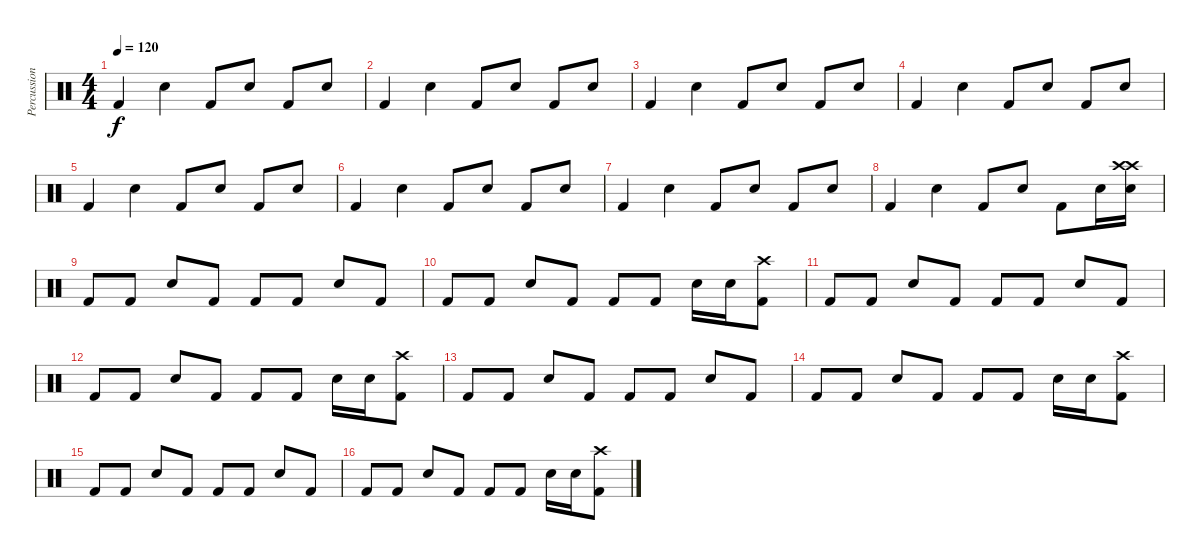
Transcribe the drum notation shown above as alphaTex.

\track ("Percussion" "Percussion") {instrument percussion}
\staff {score}
\articulation defaults
\ts (4 4)
\tempo 120
\clef neutral
\ks c "Kick (hit) 2".4{dy f} "Snare (hit) 2".4 "Kick (hit) 2".8 "Snare (hit) 2".8 "Kick (hit) 2".8 "Snare (hit) 2".8
|
"Kick (hit) 2".4 "Snare (hit) 2".4 "Kick (hit) 2".8 "Snare (hit) 2".8 "Kick (hit) 2".8 "Snare (hit) 2".8 |
"Kick (hit) 2".4 "Snare (hit) 2".4 "Kick (hit) 2".8 "Snare (hit) 2".8 "Kick (hit) 2".8 "Snare (hit) 2".8 |
"Kick (hit) 2".4 "Snare (hit) 2".4 "Kick (hit) 2".8 "Snare (hit) 2".8 "Kick (hit) 2".8 "Snare (hit) 2".8 |
"Kick (hit) 2".4 "Snare (hit) 2".4 "Kick (hit) 2".8 "Snare (hit) 2".8 "Kick (hit) 2".8 "Snare (hit) 2".8 |
"Kick (hit) 2".4 "Snare (hit) 2".4 "Kick (hit) 2".8 "Snare (hit) 2".8 "Kick (hit) 2".8 "Snare (hit) 2".8 |
"Kick (hit) 2".4 "Snare (hit) 2".4 "Kick (hit) 2".8 "Snare (hit) 2".8 "Kick (hit) 2".8 "Snare (hit) 2".8 |
"Kick (hit) 2".4 "Snare (hit) 2".4 "Kick (hit) 2".8 "Snare (hit) 2".8 "Kick (hit) 2".8 "Snare (hit) 2".16 ("Crash high (hit)" "Crash high (hit)" "Snare (hit) 2").16 |
"Kick (hit) 2".8 "Kick (hit) 2".8 "Snare (hit) 2".8 "Kick (hit) 2".8 "Kick (hit) 2".8 "Kick (hit) 2".8 "Snare (hit) 2".8 "Kick (hit) 2".8 |
"Kick (hit) 2".8 "Kick (hit) 2".8 "Snare (hit) 2".8 "Kick (hit) 2".8 "Kick (hit) 2".8 "Kick (hit) 2".8 "Snare (hit) 2".16 "Snare (hit) 2".16 ("Crash high (hit)" "Kick (hit) 2").8 |
"Kick (hit) 2".8 "Kick (hit) 2".8 "Snare (hit) 2".8 "Kick (hit) 2".8 "Kick (hit) 2".8 "Kick (hit) 2".8 "Snare (hit) 2".8 "Kick (hit) 2".8 |
"Kick (hit) 2".8 "Kick (hit) 2".8 "Snare (hit) 2".8 "Kick (hit) 2".8 "Kick (hit) 2".8 "Kick (hit) 2".8 "Snare (hit) 2".16 "Snare (hit) 2".16 ("Crash high (hit)" "Kick (hit) 2").8 |
"Kick (hit) 2".8 "Kick (hit) 2".8 "Snare (hit) 2".8 "Kick (hit) 2".8 "Kick (hit) 2".8 "Kick (hit) 2".8 "Snare (hit) 2".8 "Kick (hit) 2".8 |
"Kick (hit) 2".8 "Kick (hit) 2".8 "Snare (hit) 2".8 "Kick (hit) 2".8 "Kick (hit) 2".8 "Kick (hit) 2".8 "Snare (hit) 2".16 "Snare (hit) 2".16 ("Crash high (hit)" "Kick (hit) 2").8 |
"Kick (hit) 2".8 "Kick (hit) 2".8 "Snare (hit) 2".8 "Kick (hit) 2".8 "Kick (hit) 2".8 "Kick (hit) 2".8 "Snare (hit) 2".8 "Kick (hit) 2".8 |
"Kick (hit) 2".8 "Kick (hit) 2".8 "Snare (hit) 2".8 "Kick (hit) 2".8 "Kick (hit) 2".8 "Kick (hit) 2".8 "Snare (hit) 2".16 "Snare (hit) 2".16 ("Crash high (hit)" "Kick (hit) 2").8
